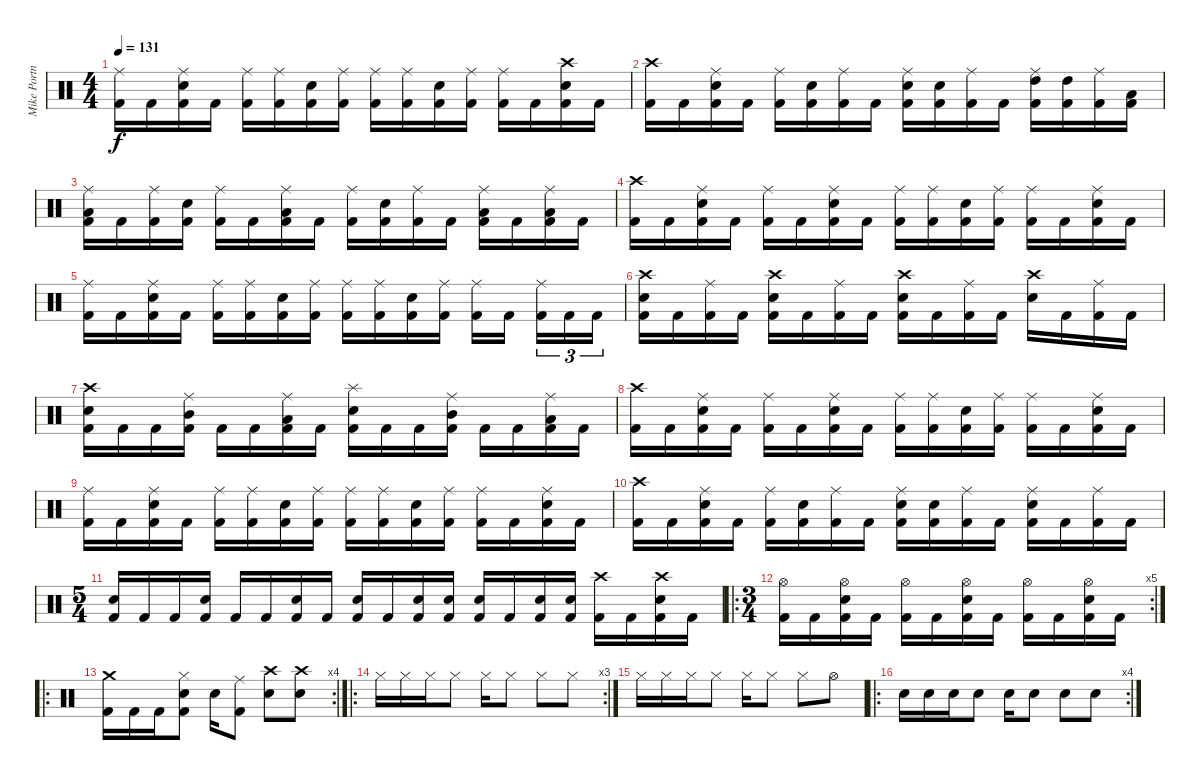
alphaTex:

\track ("Mike Portnoy" "Mike Portn") {instrument percussion}
\staff {score}
\articulation defaults
\ts (4 4)
\tempo 131
\clef neutral
\ks c
("Ride (middle)" "Kick (hit) 2").16{dy f} "Kick (hit) 2".16 ("Ride (middle)" "Snare (hit) 2" "Kick (hit) 2").16 "Kick (hit) 2".16 ("Ride (middle)" "Kick (hit) 2").16 ("Ride (middle)" "Kick (hit) 2").16 ("Snare (hit) 2" "Kick (hit) 2").16 ("Ride (middle)" "Kick (hit) 2").16 ("Ride (middle)" "Kick (hit) 2").16 ("Ride (middle)" "Kick (hit) 2").16 ("Snare (hit) 2" "Kick (hit) 2").16 ("Ride (middle)" "Kick (hit) 2").16 ("Ride (middle)" "Kick (hit) 2").16 "Kick (hit) 2".16 ("Crash high (hit)" "Snare (hit) 2" "Kick (hit) 2").16 "Kick (hit) 2".16 |
("Crash high (hit)" "Kick (hit) 2").16 "Kick (hit) 2".16 ("Ride (middle)" "Snare (hit) 2" "Kick (hit) 2").16 "Kick (hit) 2".16 ("Ride (middle)" "Kick (hit) 2").16 ("Snare (hit) 2" "Kick (hit) 2").16 ("Ride (middle)" "Kick (hit) 2").16 "Kick (hit) 2".16 ("Ride (middle)" "Snare (hit) 2" "Kick (hit) 2").16 ("Snare (hit) 2" "Kick (hit) 2").16 ("Ride (middle)" "Kick (hit) 2").16 "Kick (hit) 2".16 ("Ride (middle)" "High Tom (hit)" "Kick (hit) 2").16 ("High Tom (hit)" "Kick (hit) 2").16 ("Ride (middle)" "Kick (hit) 2").16 ("Low Tom (hit)" "Kick (hit) 2").16 |
("Ride (middle)" "Low Tom (hit)" "Kick (hit) 2").16 "Kick (hit) 2".16 ("Ride (middle)" "Kick (hit) 2").16 ("Snare (hit) 2" "Kick (hit) 2").16 ("Ride (middle)" "Kick (hit) 2").16 "Kick (hit) 2".16 ("Ride (middle)" "Low Tom (hit)" "Kick (hit) 2").16 "Kick (hit) 2".16 ("Ride (middle)" "Kick (hit) 2").16 ("Snare (hit) 2" "Kick (hit) 2").16 ("Ride (middle)" "Kick (hit) 2").16 "Kick (hit) 2".16 ("Ride (middle)" "Low Tom (hit)" "Kick (hit) 2").16 "Kick (hit) 2".16 ("Ride (middle)" "Low Tom (hit)" "Kick (hit) 2").16 "Kick (hit) 2".16 |
("Crash high (hit)" "Kick (hit) 2").16 "Kick (hit) 2".16 ("Ride (middle)" "Snare (hit) 2" "Kick (hit) 2").16 "Kick (hit) 2".16 ("Ride (middle)" "Kick (hit) 2").16 "Kick (hit) 2".16 ("Ride (middle)" "Snare (hit) 2" "Kick (hit) 2").16 "Kick (hit) 2".16 ("Ride (middle)" "Kick (hit) 2").16 ("Ride (middle)" "Kick (hit) 2").16 ("Snare (hit) 2" "Kick (hit) 2").16 ("Ride (middle)" "Kick (hit) 2").16 ("Ride (middle)" "Kick (hit) 2").16 "Kick (hit) 2".16 ("Ride (middle)" "Snare (hit) 2" "Kick (hit) 2").16 "Kick (hit) 2".16 |
("Ride (middle)" "Kick (hit) 2").16 "Kick (hit) 2".16 ("Ride (middle)" "Snare (hit) 2" "Kick (hit) 2").16 "Kick (hit) 2".16 ("Ride (middle)" "Kick (hit) 2").16 ("Ride (middle)" "Kick (hit) 2").16 ("Snare (hit) 2" "Kick (hit) 2").16 ("Ride (middle)" "Kick (hit) 2").16 ("Ride (middle)" "Kick (hit) 2").16 ("Ride (middle)" "Kick (hit) 2").16 ("Snare (hit) 2" "Kick (hit) 2").16 ("Ride (middle)" "Kick (hit) 2").16 ("Ride (middle)" "Kick (hit) 2").16 "Kick (hit) 2".16 ("Ride (middle)" "Kick (hit) 2").16{tu (3 2)} "Kick (hit) 2".16{tu (3 2)} "Kick (hit) 2".16{tu (3 2)} |
("Crash high (hit)" "Snare (hit) 2" "Kick (hit) 2").16 "Kick (hit) 2".16 ("Ride (middle)" "Kick (hit) 2").16 "Kick (hit) 2".16 ("Crash high (hit)" "Snare (hit) 2" "Kick (hit) 2").16 "Kick (hit) 2".16 ("Ride (middle)" "Kick (hit) 2").16 "Kick (hit) 2".16 ("Crash high (hit)" "Snare (hit) 2" "Kick (hit) 2").16 "Kick (hit) 2".16 ("Ride (middle)" "Kick (hit) 2").16 "Kick (hit) 2".16 ("Crash high (hit)" "Snare (hit) 2").16 "Kick (hit) 2".16 ("Ride (middle)" "Kick (hit) 2").16 "Kick (hit) 2".16 |
("Crash high (hit)" "Snare (hit) 2" "Kick (hit) 2").16 "Kick (hit) 2".16 "Kick (hit) 2".16 ("Ride (middle)" "Mid Tom (hit)" "Kick (hit) 2").16 "Kick (hit) 2".16 "Kick (hit) 2".16 ("Ride (middle)" "Low Tom (hit)" "Kick (hit) 2").16 "Kick (hit) 2".16 ("Splash (hit)" "Snare (hit) 2" "Kick (hit) 2").16 "Kick (hit) 2".16 "Kick (hit) 2".16 ("Ride (middle)" "Mid Tom (hit)" "Kick (hit) 2").16 "Kick (hit) 2".16 "Kick (hit) 2".16 ("Ride (middle)" "Low Tom (hit)" "Kick (hit) 2").16 "Kick (hit) 2".16 |
("Crash high (hit)" "Kick (hit) 2").16 "Kick (hit) 2".16 ("Ride (middle)" "Snare (hit) 2" "Kick (hit) 2").16 "Kick (hit) 2".16 ("Ride (middle)" "Kick (hit) 2").16 "Kick (hit) 2".16 ("Ride (middle)" "Snare (hit) 2" "Kick (hit) 2").16 "Kick (hit) 2".16 ("Ride (middle)" "Kick (hit) 2").16 ("Ride (middle)" "Kick (hit) 2").16 ("Snare (hit) 2" "Kick (hit) 2").16 ("Ride (middle)" "Kick (hit) 2").16 ("Ride (middle)" "Kick (hit) 2").16 "Kick (hit) 2".16 ("Ride (middle)" "Snare (hit) 2" "Kick (hit) 2").16 "Kick (hit) 2".16 |
("Ride (middle)" "Kick (hit) 2").16 "Kick (hit) 2".16 ("Ride (middle)" "Snare (hit) 2" "Kick (hit) 2").16 "Kick (hit) 2".16 ("Ride (middle)" "Kick (hit) 2").16 ("Ride (middle)" "Kick (hit) 2").16 ("Snare (hit) 2" "Kick (hit) 2").16 ("Ride (middle)" "Kick (hit) 2").16 ("Ride (middle)" "Kick (hit) 2").16 ("Ride (middle)" "Kick (hit) 2").16 ("Snare (hit) 2" "Kick (hit) 2").16 ("Ride (middle)" "Kick (hit) 2").16 ("Ride (middle)" "Kick (hit) 2").16 "Kick (hit) 2".16 ("Ride (middle)" "Snare (hit) 2" "Kick (hit) 2").16 "Kick (hit) 2".16 |
("Crash high (hit)" "Kick (hit) 2").16 "Kick (hit) 2".16 ("Ride (middle)" "Snare (hit) 2" "Kick (hit) 2").16 "Kick (hit) 2".16 ("Ride (middle)" "Kick (hit) 2").16 ("Snare (hit) 2" "Kick (hit) 2").16 ("Ride (middle)" "Kick (hit) 2").16 "Kick (hit) 2".16 ("Ride (middle)" "Snare (hit) 2" "Kick (hit) 2").16 ("Snare (hit) 2" "Kick (hit) 2").16 ("Ride (middle)" "Kick (hit) 2").16 "Kick (hit) 2".16 ("Ride (middle)" "Snare (hit) 2" "Kick (hit) 2").16 "Kick (hit) 2".16 ("Ride (middle)" "Kick (hit) 2").16 "Kick (hit) 2".16 |
\ts (5 4)
("Snare (hit) 2" "Kick (hit) 2").16 "Kick (hit) 2".16 "Kick (hit) 2".16 ("Snare (hit) 2" "Kick (hit) 2").16 "Kick (hit) 2".16 "Kick (hit) 2".16 ("Snare (hit) 2" "Kick (hit) 2").16 "Kick (hit) 2".16 ("Snare (hit) 2" "Kick (hit) 2").16 "Kick (hit) 2".16 ("Snare (hit) 2" "Kick (hit) 2").16 ("Snare (hit) 2" "Kick (hit) 2").16 ("Snare (hit) 2" "Kick (hit) 2").16 "Kick (hit) 2".16 ("Snare (hit) 2" "Kick (hit) 2").16 ("Snare (hit) 2" "Kick (hit) 2").16 ("Crash high (hit)" "Kick (hit) 2").16 "Kick (hit) 2".16 ("Crash high (hit)" "Snare (hit) 2" "Kick (hit) 2").16 "Kick (hit) 2".16 |
\ro
\rc 5
\ts (3 4)
("Hi-Hat (open)" "Kick (hit) 2").16 "Kick (hit) 2".16 ("Hi-Hat (open)" "Snare (hit) 2" "Kick (hit) 2").16 "Kick (hit) 2".16 ("Hi-Hat (open)" "Kick (hit) 2").16 "Kick (hit) 2".16 ("Hi-Hat (open)" "Snare (hit) 2" "Kick (hit) 2").16 "Kick (hit) 2".16 ("Hi-Hat (open)" "Kick (hit) 2").16 "Kick (hit) 2".16 ("Hi-Hat (open)" "Snare (hit) 2" "Kick (hit) 2").16 "Kick (hit) 2".16 |
\ro
\rc 4
("Crash medium (hit)" "Kick (hit) 2").16 "Kick (hit) 2".16 "Kick (hit) 2".16 ("Hi-Hat (closed)" "Snare (hit) 2" "Kick (hit) 2").8 "Snare (hit) 2".16 ("Ride (middle)" "Kick (hit) 2").8 ("Crash high (hit)" "Snare (hit) 2").8 ("Crash high (hit)" "Snare (hit) 2").8 |
\ro
\rc 3 "Hi-Hat (closed)".16 "Hi-Hat (closed)".16 "Hi-Hat (closed)".16 "Hi-Hat (closed)".8 "Hi-Hat (closed)".16 "Hi-Hat (closed)".8 "Hi-Hat (closed)".8 "Hi-Hat (closed)".8
|
"Hi-Hat (closed)".16 "Hi-Hat (closed)".16 "Hi-Hat (closed)".16 "Hi-Hat (closed)".8 "Hi-Hat (closed)".16 "Hi-Hat (closed)".8 "Hi-Hat (closed)".8 "Hi-Hat (open)".8 |
\ro
\rc 4 "Snare (hit) 2".16 "Snare (hit) 2".16 "Snare (hit) 2".16 "Snare (hit) 2".8 "Snare (hit) 2".16 "Snare (hit) 2".8 "Snare (hit) 2".8 "Snare (hit) 2".8
